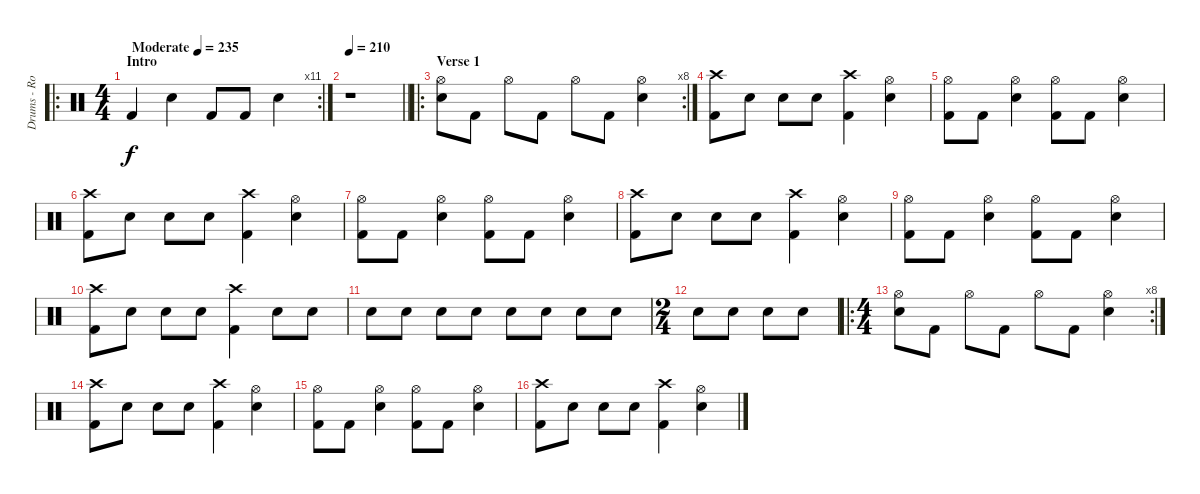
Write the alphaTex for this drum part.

\track ("Drums - Robo" "Drums - Ro") {instrument percussion}
\staff {score}
\articulation defaults
\ro
\rc 11
\ts (4 4)
\section ("" "Intro")
\tempo (235 "Moderate")
\clef neutral
\ks c "Kick (hit) 2".4{dy f} "Electric Snare (hit)".4 "Kick (hit) 2".8 "Kick (hit) 2".8 "Electric Snare (hit)".4
|
\tempo 210
\barLineRight lightlight
r.1 |
\ro
\rc 8
\section ("" "Verse 1")
("Hi-Hat (open)" "Electric Snare (hit)").8 "Kick (hit) 2".8 "Hi-Hat (open)".8 "Kick (hit) 2".8 "Hi-Hat (open)".8 "Kick (hit) 2".8 ("Hi-Hat (open)" "Electric Snare (hit)").4 |
("Crash high (hit)" "Kick (hit) 2").8 "Electric Snare (hit)".8 "Electric Snare (hit)".8 "Electric Snare (hit)".8 ("Crash high (hit)" "Kick (hit) 2").4 ("Hi-Hat (open)" "Electric Snare (hit)").4 |
("Hi-Hat (open)" "Kick (hit) 2").8 "Kick (hit) 2".8 ("Hi-Hat (open)" "Electric Snare (hit)").4 ("Hi-Hat (open)" "Kick (hit) 2").8 "Kick (hit) 2".8 ("Hi-Hat (open)" "Electric Snare (hit)").4 |
("Crash high (hit)" "Kick (hit) 2").8 "Electric Snare (hit)".8 "Electric Snare (hit)".8 "Electric Snare (hit)".8 ("Crash high (hit)" "Kick (hit) 2").4 ("Hi-Hat (open)" "Electric Snare (hit)").4 |
("Hi-Hat (open)" "Kick (hit) 2").8 "Kick (hit) 2".8 ("Hi-Hat (open)" "Electric Snare (hit)").4 ("Hi-Hat (open)" "Kick (hit) 2").8 "Kick (hit) 2".8 ("Hi-Hat (open)" "Electric Snare (hit)").4 |
("Crash high (hit)" "Kick (hit) 2").8 "Electric Snare (hit)".8 "Electric Snare (hit)".8 "Electric Snare (hit)".8 ("Crash high (hit)" "Kick (hit) 2").4 ("Hi-Hat (open)" "Electric Snare (hit)").4 |
("Hi-Hat (open)" "Kick (hit) 2").8 "Kick (hit) 2".8 ("Hi-Hat (open)" "Electric Snare (hit)").4 ("Hi-Hat (open)" "Kick (hit) 2").8 "Kick (hit) 2".8 ("Hi-Hat (open)" "Electric Snare (hit)").4 |
("Crash high (hit)" "Kick (hit) 2").8 "Electric Snare (hit)".8 "Electric Snare (hit)".8 "Electric Snare (hit)".8 ("Crash high (hit)" "Kick (hit) 2").4 "Electric Snare (hit)".8 "Electric Snare (hit)".8 |
"Electric Snare (hit)".8 "Electric Snare (hit)".8 "Electric Snare (hit)".8 "Electric Snare (hit)".8 "Electric Snare (hit)".8 "Electric Snare (hit)".8 "Electric Snare (hit)".8 "Electric Snare (hit)".8 |
\ts (2 4)
"Electric Snare (hit)".8 "Electric Snare (hit)".8 "Electric Snare (hit)".8 "Electric Snare (hit)".8 |
\ro
\rc 8
\ts (4 4)
("Hi-Hat (open)" "Electric Snare (hit)").8 "Kick (hit) 2".8 "Hi-Hat (open)".8 "Kick (hit) 2".8 "Hi-Hat (open)".8 "Kick (hit) 2".8 ("Hi-Hat (open)" "Electric Snare (hit)").4 |
("Crash high (hit)" "Kick (hit) 2").8 "Electric Snare (hit)".8 "Electric Snare (hit)".8 "Electric Snare (hit)".8 ("Crash high (hit)" "Kick (hit) 2").4 ("Hi-Hat (open)" "Electric Snare (hit)").4 |
("Hi-Hat (open)" "Kick (hit) 2").8 "Kick (hit) 2".8 ("Hi-Hat (open)" "Electric Snare (hit)").4 ("Hi-Hat (open)" "Kick (hit) 2").8 "Kick (hit) 2".8 ("Hi-Hat (open)" "Electric Snare (hit)").4 |
("Crash high (hit)" "Kick (hit) 2").8 "Electric Snare (hit)".8 "Electric Snare (hit)".8 "Electric Snare (hit)".8 ("Crash high (hit)" "Kick (hit) 2").4 ("Hi-Hat (open)" "Electric Snare (hit)").4
